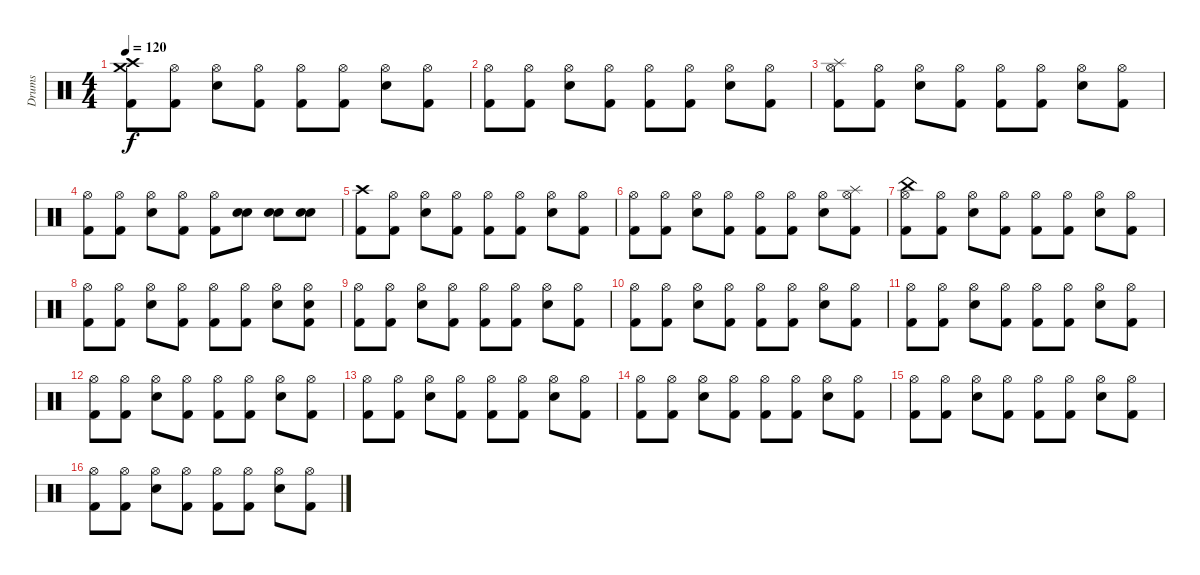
\track ("Drums" "Drums") {instrument percussion}
\staff {score}
\articulation defaults
\ts (4 4)
\tempo 120
\clef neutral
\ks c
("Crash high (hit)" "Crash medium (hit)" "Kick (hit) 2").8{dy f} ("Hi-Hat (open)" "Kick (hit) 2").8 ("Hi-Hat (open)" "Snare (hit) 2").8 ("Hi-Hat (open)" "Kick (hit) 2").8 ("Hi-Hat (open)" "Kick (hit) 2").8 ("Hi-Hat (open)" "Kick (hit) 2").8 ("Hi-Hat (open)" "Snare (hit) 2").8 ("Hi-Hat (open)" "Kick (hit) 2").8 |
("Hi-Hat (open)" "Kick (hit) 2").8 ("Hi-Hat (open)" "Kick (hit) 2").8 ("Hi-Hat (open)" "Snare (hit) 2").8 ("Hi-Hat (open)" "Kick (hit) 2").8 ("Hi-Hat (open)" "Kick (hit) 2").8 ("Hi-Hat (open)" "Kick (hit) 2").8 ("Hi-Hat (open)" "Snare (hit) 2").8 ("Hi-Hat (open)" "Kick (hit) 2").8 |
("Splash (hit)" "Hi-Hat (open)" "Kick (hit) 2").8 ("Hi-Hat (open)" "Kick (hit) 2").8 ("Hi-Hat (open)" "Snare (hit) 2").8 ("Hi-Hat (open)" "Kick (hit) 2").8 ("Hi-Hat (open)" "Kick (hit) 2").8 ("Hi-Hat (open)" "Kick (hit) 2").8 ("Hi-Hat (open)" "Snare (hit) 2").8 ("Hi-Hat (open)" "Kick (hit) 2").8 |
("Hi-Hat (open)" "Kick (hit) 2").8 ("Hi-Hat (open)" "Kick (hit) 2").8 ("Hi-Hat (open)" "Snare (hit) 2").8 ("Hi-Hat (open)" "Kick (hit) 2").8 ("Hi-Hat (open)" "Kick (hit) 2").8 ("Snare (hit) 2" "Snare (hit) 2").8 ("Snare (hit) 2" "Snare (hit) 2").8 ("Snare (hit) 2" "Snare (hit) 2").8 |
("Crash high (hit)" "Kick (hit) 2").8 ("Hi-Hat (open)" "Kick (hit) 2").8 ("Hi-Hat (open)" "Snare (hit) 2").8 ("Hi-Hat (open)" "Kick (hit) 2").8 ("Hi-Hat (open)" "Kick (hit) 2").8 ("Hi-Hat (open)" "Kick (hit) 2").8 ("Hi-Hat (open)" "Snare (hit) 2").8 ("Hi-Hat (open)" "Kick (hit) 2").8 |
("Hi-Hat (open)" "Kick (hit) 2").8 ("Hi-Hat (open)" "Kick (hit) 2").8 ("Hi-Hat (open)" "Snare (hit) 2").8 ("Hi-Hat (open)" "Kick (hit) 2").8 ("Hi-Hat (open)" "Kick (hit) 2").8 ("Hi-Hat (open)" "Kick (hit) 2").8 ("Hi-Hat (open)" "Snare (hit) 2").8 ("Splash (hit)" "Hi-Hat (open)" "Kick (hit) 2").8 |
("China (hit)" "Hi-Hat (open)" "Kick (hit) 2").8 ("Hi-Hat (open)" "Kick (hit) 2").8 ("Hi-Hat (open)" "Snare (hit) 2").8 ("Hi-Hat (open)" "Kick (hit) 2").8 ("Hi-Hat (open)" "Kick (hit) 2").8 ("Hi-Hat (open)" "Kick (hit) 2").8 ("Hi-Hat (open)" "Snare (hit) 2").8 ("Hi-Hat (open)" "Kick (hit) 2").8 |
("Hi-Hat (open)" "Kick (hit) 2").8 ("Hi-Hat (open)" "Kick (hit) 2").8 ("Hi-Hat (open)" "Snare (hit) 2").8 ("Hi-Hat (open)" "Kick (hit) 2").8 ("Hi-Hat (open)" "Kick (hit) 2").8 ("Hi-Hat (open)" "Kick (hit) 2").8 ("Hi-Hat (open)" "Snare (hit) 2").8 ("Hi-Hat (open)" "Snare (hit) 2" "Kick (hit) 2").8 |
("Hi-Hat (open)" "Kick (hit) 2").8 ("Hi-Hat (open)" "Kick (hit) 2").8 ("Hi-Hat (open)" "Snare (hit) 2").8 ("Hi-Hat (open)" "Kick (hit) 2").8 ("Hi-Hat (open)" "Kick (hit) 2").8 ("Hi-Hat (open)" "Kick (hit) 2").8 ("Hi-Hat (open)" "Snare (hit) 2").8 ("Hi-Hat (open)" "Kick (hit) 2").8 |
("Hi-Hat (open)" "Kick (hit) 2").8 ("Hi-Hat (open)" "Kick (hit) 2").8 ("Hi-Hat (open)" "Snare (hit) 2").8 ("Hi-Hat (open)" "Kick (hit) 2").8 ("Hi-Hat (open)" "Kick (hit) 2").8 ("Hi-Hat (open)" "Kick (hit) 2").8 ("Hi-Hat (open)" "Snare (hit) 2").8 ("Hi-Hat (open)" "Kick (hit) 2").8 |
("Hi-Hat (open)" "Kick (hit) 2").8 ("Hi-Hat (open)" "Kick (hit) 2").8 ("Hi-Hat (open)" "Snare (hit) 2").8 ("Hi-Hat (open)" "Kick (hit) 2").8 ("Hi-Hat (open)" "Kick (hit) 2").8 ("Hi-Hat (open)" "Kick (hit) 2").8 ("Hi-Hat (open)" "Snare (hit) 2").8 ("Hi-Hat (open)" "Kick (hit) 2").8 |
("Hi-Hat (open)" "Kick (hit) 2").8 ("Hi-Hat (open)" "Kick (hit) 2").8 ("Hi-Hat (open)" "Snare (hit) 2").8 ("Hi-Hat (open)" "Kick (hit) 2").8 ("Hi-Hat (open)" "Kick (hit) 2").8 ("Hi-Hat (open)" "Kick (hit) 2").8 ("Hi-Hat (open)" "Snare (hit) 2").8 ("Hi-Hat (open)" "Kick (hit) 2").8 |
("Hi-Hat (open)" "Kick (hit) 2").8 ("Hi-Hat (open)" "Kick (hit) 2").8 ("Hi-Hat (open)" "Snare (hit) 2").8 ("Hi-Hat (open)" "Kick (hit) 2").8 ("Hi-Hat (open)" "Kick (hit) 2").8 ("Hi-Hat (open)" "Kick (hit) 2").8 ("Hi-Hat (open)" "Snare (hit) 2").8 ("Hi-Hat (open)" "Kick (hit) 2").8 |
("Hi-Hat (open)" "Kick (hit) 2").8 ("Hi-Hat (open)" "Kick (hit) 2").8 ("Hi-Hat (open)" "Snare (hit) 2").8 ("Hi-Hat (open)" "Kick (hit) 2").8 ("Hi-Hat (open)" "Kick (hit) 2").8 ("Hi-Hat (open)" "Kick (hit) 2").8 ("Hi-Hat (open)" "Snare (hit) 2").8 ("Hi-Hat (open)" "Kick (hit) 2").8 |
("Hi-Hat (open)" "Kick (hit) 2").8 ("Hi-Hat (open)" "Kick (hit) 2").8 ("Hi-Hat (open)" "Snare (hit) 2").8 ("Hi-Hat (open)" "Kick (hit) 2").8 ("Hi-Hat (open)" "Kick (hit) 2").8 ("Hi-Hat (open)" "Kick (hit) 2").8 ("Hi-Hat (open)" "Snare (hit) 2").8 ("Hi-Hat (open)" "Kick (hit) 2").8 |
("Hi-Hat (open)" "Kick (hit) 2").8 ("Hi-Hat (open)" "Kick (hit) 2").8 ("Hi-Hat (open)" "Snare (hit) 2").8 ("Hi-Hat (open)" "Kick (hit) 2").8 ("Hi-Hat (open)" "Kick (hit) 2").8 ("Hi-Hat (open)" "Kick (hit) 2").8 ("Hi-Hat (open)" "Snare (hit) 2").8 ("Hi-Hat (open)" "Kick (hit) 2").8
